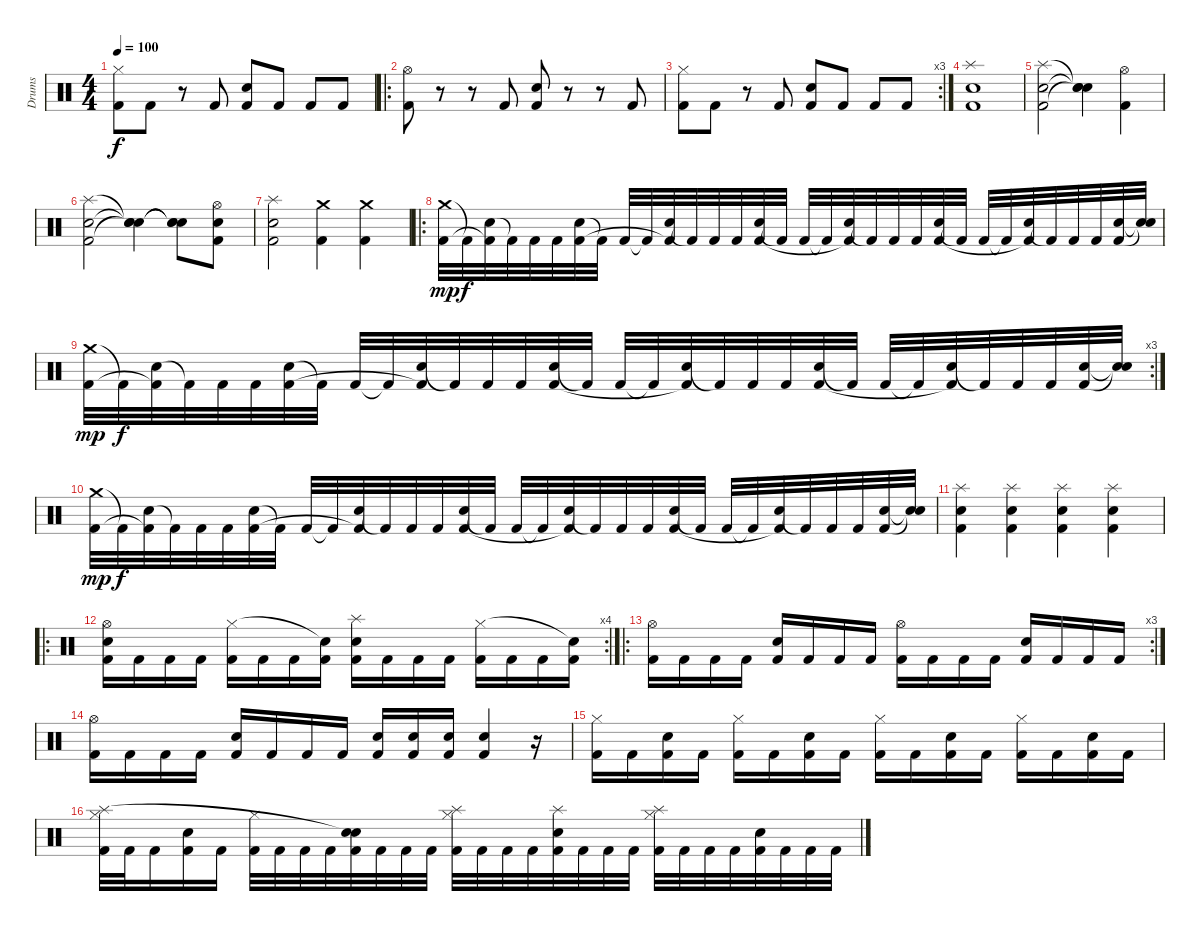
\track ("Drums" "Drums") {instrument percussion}
\staff {score}
\articulation defaults
\ts (4 4)
\tempo 100
\clef neutral
\ks c
("Kick (hit) 2" "Hi-Hat (closed)").8{dy f} "Kick (hit) 2".8 r.8 "Kick (hit) 2".8 ("Kick (hit) 2" "Snare (hit) 2").8 "Kick (hit) 2".8 "Kick (hit) 2".8 "Kick (hit) 2".8 |
\ro
("Kick (hit) 2" "Hi-Hat (open)").8 r.8 r.8 "Kick (hit) 2".8 ("Kick (hit) 2" "Snare (hit) 2").8 r.8 r.8 "Kick (hit) 2".8 |
\rc 3
("Kick (hit) 2" "Hi-Hat (closed)").8 "Kick (hit) 2".8 r.8 "Kick (hit) 2".8 ("Kick (hit) 2" "Snare (hit) 2").8 "Kick (hit) 2".8 "Kick (hit) 2".8 "Kick (hit) 2".8 |
("Splash (hit)" "Snare (hit) 2" "Kick (hit) 2").1 |
("Splash (hit)" "Snare (hit) 2" "Kick (hit) 2").2 ("Snare (hit)"{t} "Snare (hit)"{t} "Snare (hit)"{t}).4 ("Hi-Hat (open)" "Kick (hit) 2").4 |
("Splash (hit)" "Snare (hit) 2" "Kick (hit) 2").2 ("Snare (hit)"{t} "Snare (hit)"{t} "Snare (hit)"{t}).4 ("Snare (hit)"{t} "Snare (hit)"{t} "Snare (hit)"{t}).8 ("Hi-Hat (open)" "Snare (hit) 2" "Kick (hit) 2").8 |
("Splash (hit)" "Snare (hit) 2" "Kick (hit) 2").2 ("Crash medium (hit)" "Kick (hit) 2").4 ("Crash medium (hit)" "Kick (hit) 2").4 |
\ro
("Crash medium (hit)" "Kick (hit) 2").32{dy mp} "Kick (hit) 2"{t}.32{dy f} ("Snare (hit) 2" "Kick (hit) 2"{t}).32 "Kick (hit) 2"{t}.32 "Kick (hit) 2".32 "Kick (hit) 2".32 ("Snare (hit) 2" "Kick (hit) 2").32 "Kick (hit) 2"{t}.32 "Kick (hit) 2".32 "Kick (hit) 2"{t}.32 ("Snare (hit) 2" "Kick (hit) 2"{t}).32 "Kick (hit) 2"{t}.32 "Kick (hit) 2".32 "Kick (hit) 2".32 ("Snare (hit) 2" "Kick (hit) 2").32 "Kick (hit) 2"{t}.32 "Kick (hit) 2".32 "Kick (hit) 2"{t}.32 ("Snare (hit) 2" "Kick (hit) 2"{t}).32 "Kick (hit) 2"{t}.32 "Kick (hit) 2".32 "Kick (hit) 2".32 ("Snare (hit) 2" "Kick (hit) 2").32 "Kick (hit) 2"{t}.32 "Kick (hit) 2".32 "Kick (hit) 2"{t}.32 ("Snare (hit) 2" "Kick (hit) 2"{t}).32 "Kick (hit) 2"{t}.32 "Kick (hit) 2".32 "Kick (hit) 2".32 ("Snare (hit) 2" "Kick (hit) 2").32 ("Snare (hit)"{t} "Snare (hit)"{t}).32 |
\rc 3
("Crash medium (hit)" "Kick (hit) 2").32{dy mp} "Kick (hit) 2"{t}.32{dy f} ("Snare (hit) 2" "Kick (hit) 2"{t}).32 "Kick (hit) 2"{t}.32 "Kick (hit) 2".32 "Kick (hit) 2".32 ("Snare (hit) 2" "Kick (hit) 2").32 "Kick (hit) 2"{t}.32 "Kick (hit) 2".32 "Kick (hit) 2"{t}.32 ("Snare (hit) 2" "Kick (hit) 2"{t}).32 "Kick (hit) 2"{t}.32 "Kick (hit) 2".32 "Kick (hit) 2".32 ("Snare (hit) 2" "Kick (hit) 2").32 "Kick (hit) 2"{t}.32 "Kick (hit) 2".32 "Kick (hit) 2"{t}.32 ("Snare (hit) 2" "Kick (hit) 2"{t}).32 "Kick (hit) 2"{t}.32 "Kick (hit) 2".32 "Kick (hit) 2".32 ("Snare (hit) 2" "Kick (hit) 2").32 "Kick (hit) 2"{t}.32 "Kick (hit) 2".32 "Kick (hit) 2"{t}.32 ("Snare (hit) 2" "Kick (hit) 2"{t}).32 "Kick (hit) 2"{t}.32 "Kick (hit) 2".32 "Kick (hit) 2".32 ("Snare (hit) 2" "Kick (hit) 2").32 ("Snare (hit)"{t} "Snare (hit)"{t}).32 |
("Crash medium (hit)" "Kick (hit) 2").32{dy mp} "Kick (hit) 2"{t}.32{dy f} ("Snare (hit) 2" "Kick (hit) 2"{t}).32 "Kick (hit) 2"{t}.32 "Kick (hit) 2".32 "Kick (hit) 2".32 ("Snare (hit) 2" "Kick (hit) 2").32 "Kick (hit) 2"{t}.32 "Kick (hit) 2".32 "Kick (hit) 2"{t}.32 ("Snare (hit) 2" "Kick (hit) 2"{t}).32 "Kick (hit) 2"{t}.32 "Kick (hit) 2".32 "Kick (hit) 2".32 ("Snare (hit) 2" "Kick (hit) 2").32 "Kick (hit) 2"{t}.32 "Kick (hit) 2".32 "Kick (hit) 2"{t}.32 ("Snare (hit) 2" "Kick (hit) 2"{t}).32 "Kick (hit) 2"{t}.32 "Kick (hit) 2".32 "Kick (hit) 2".32 ("Snare (hit) 2" "Kick (hit) 2").32 "Kick (hit) 2"{t}.32 "Kick (hit) 2".32 "Kick (hit) 2"{t}.32 ("Snare (hit) 2" "Kick (hit) 2"{t}).32 "Kick (hit) 2"{t}.32 "Kick (hit) 2".32 "Kick (hit) 2".32 ("Snare (hit) 2" "Kick (hit) 2").32 ("Snare (hit)"{t} "Snare (hit)"{t}).32 |
("Splash (hit)" "Snare (hit) 2" "Kick (hit) 2").4 ("Splash (hit)" "Snare (hit) 2" "Kick (hit) 2").4 ("Splash (hit)" "Snare (hit) 2" "Kick (hit) 2").4 ("Splash (hit)" "Snare (hit) 2" "Kick (hit) 2").4 |
\ro
\rc 4
("Kick (hit) 2" "Snare (hit) 2" "Hi-Hat (open)").16 "Kick (hit) 2".16 "Kick (hit) 2".16 "Kick (hit) 2".16 ("Kick (hit) 2" "Hi-Hat (closed)").16 "Kick (hit) 2".16 "Kick (hit) 2".16 ("Kick (hit) 2" "Snare (hit)"{t}).16 ("Kick (hit) 2" "Snare (hit) 2" "Splash (hit)").16 "Kick (hit) 2".16 "Kick (hit) 2".16 "Kick (hit) 2".16 ("Kick (hit) 2" "Hi-Hat (closed)").16 "Kick (hit) 2".16 "Kick (hit) 2".16 ("Kick (hit) 2" "Snare (hit)"{t}).16 |
\ro
\rc 3
("Kick (hit) 2" "Hi-Hat (open)").16 "Kick (hit) 2".16 "Kick (hit) 2".16 "Kick (hit) 2".16 ("Kick (hit) 2" "Snare (hit) 2").16 "Kick (hit) 2".16 "Kick (hit) 2".16 "Kick (hit) 2".16 ("Kick (hit) 2" "Hi-Hat (open)").16 "Kick (hit) 2".16 "Kick (hit) 2".16 "Kick (hit) 2".16 ("Kick (hit) 2" "Snare (hit) 2").16 "Kick (hit) 2".16 "Kick (hit) 2".16 "Kick (hit) 2".16 |
("Kick (hit) 2" "Hi-Hat (open)").16 "Kick (hit) 2".16 "Kick (hit) 2".16 "Kick (hit) 2".16 ("Kick (hit) 2" "Snare (hit) 2").16 "Kick (hit) 2".16 "Kick (hit) 2".16 "Kick (hit) 2".16 ("Kick (hit) 2" "Snare (hit) 2").16 ("Kick (hit) 2" "Snare (hit) 2").16 ("Kick (hit) 2" "Snare (hit) 2").16 ("Kick (hit) 2" "Snare (hit) 2").4 r.16 |
("Kick (hit) 2" "Hi-Hat (closed)").16 "Kick (hit) 2".16 ("Kick (hit) 2" "Snare (hit) 2").16 "Kick (hit) 2".16 ("Kick (hit) 2" "Hi-Hat (closed)").16 "Kick (hit) 2".16 ("Kick (hit) 2" "Snare (hit) 2").16 "Kick (hit) 2".16 ("Kick (hit) 2" "Hi-Hat (closed)").16 "Kick (hit) 2".16 ("Kick (hit) 2" "Snare (hit) 2").16 "Kick (hit) 2".16 ("Kick (hit) 2" "Hi-Hat (closed)").16 "Kick (hit) 2".16 ("Kick (hit) 2" "Snare (hit) 2").16 "Kick (hit) 2".16 |
("Kick (hit) 2" "Hi-Hat (closed)" "Splash (hit)").32 "Kick (hit) 2".32 "Kick (hit) 2".16 ("Kick (hit) 2" "Snare (hit) 2").16 "Kick (hit) 2".16 ("Kick (hit) 2" "Hi-Hat (closed)").32 "Kick (hit) 2".32 "Kick (hit) 2".32 "Kick (hit) 2".32 ("Kick (hit) 2" "Snare (hit) 2" "Snare (hit)"{t}).32 "Kick (hit) 2".32 "Kick (hit) 2".32 "Kick (hit) 2".32 ("Kick (hit) 2" "Hi-Hat (closed)" "Splash (hit)").32 "Kick (hit) 2".32 "Kick (hit) 2".32 "Kick (hit) 2".32 ("Kick (hit) 2" "Snare (hit) 2" "Splash (hit)").32 "Kick (hit) 2".32 "Kick (hit) 2".32 "Kick (hit) 2".32 ("Kick (hit) 2" "Hi-Hat (closed)" "Splash (hit)").32 "Kick (hit) 2".32 "Kick (hit) 2".32 "Kick (hit) 2".32 ("Kick (hit) 2" "Snare (hit) 2").32 "Kick (hit) 2".32 "Kick (hit) 2".32 "Kick (hit) 2".32
